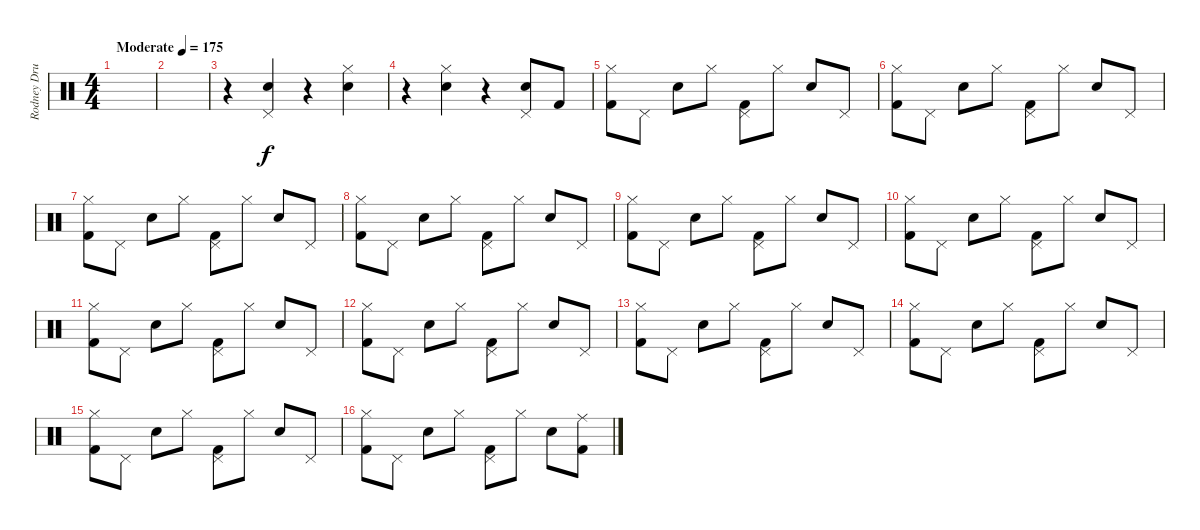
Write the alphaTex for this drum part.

\track ("Rodney Drums" "Rodney Dru") {instrument percussion}
\staff {score}
\articulation defaults
\ts (4 4)
\tempo (175 "Moderate")
\clef neutral
\ks c
|
|
r.4 ("Pedal Hi-Hat (hit)" "Snare (hit) 2").4 r.4 ("Hi-Hat (closed)" "Snare (hit) 2").4 |
r.4 ("Hi-Hat (closed)" "Snare (hit) 2").4 r.4 ("Pedal Hi-Hat (hit)" "Snare (hit) 2").8 "Kick (hit) 2".8 |
("Hi-Hat (closed)" "Kick (hit) 2").8 "Pedal Hi-Hat (hit)".8 "Snare (hit) 2".8 "Hi-Hat (closed)".8 ("Pedal Hi-Hat (hit)" "Kick (hit) 2").8 "Hi-Hat (closed)".8 "Snare (hit) 2".8 "Pedal Hi-Hat (hit)".8 |
("Hi-Hat (closed)" "Kick (hit) 2").8 "Pedal Hi-Hat (hit)".8 "Snare (hit) 2".8 "Hi-Hat (closed)".8 ("Pedal Hi-Hat (hit)" "Kick (hit) 2").8 "Hi-Hat (closed)".8 "Snare (hit) 2".8 "Pedal Hi-Hat (hit)".8 |
("Hi-Hat (closed)" "Kick (hit) 2").8 "Pedal Hi-Hat (hit)".8 "Snare (hit) 2".8 "Hi-Hat (closed)".8 ("Pedal Hi-Hat (hit)" "Kick (hit) 2").8 "Hi-Hat (closed)".8 "Snare (hit) 2".8 "Pedal Hi-Hat (hit)".8 |
("Hi-Hat (closed)" "Kick (hit) 2").8 "Pedal Hi-Hat (hit)".8 "Snare (hit) 2".8 "Hi-Hat (closed)".8 ("Pedal Hi-Hat (hit)" "Kick (hit) 2").8 "Hi-Hat (closed)".8 "Snare (hit) 2".8 "Pedal Hi-Hat (hit)".8 |
("Hi-Hat (closed)" "Kick (hit) 2").8 "Pedal Hi-Hat (hit)".8 "Snare (hit) 2".8 "Hi-Hat (closed)".8 ("Pedal Hi-Hat (hit)" "Kick (hit) 2").8 "Hi-Hat (closed)".8 "Snare (hit) 2".8 "Pedal Hi-Hat (hit)".8 |
("Hi-Hat (closed)" "Kick (hit) 2").8 "Pedal Hi-Hat (hit)".8 "Snare (hit) 2".8 "Hi-Hat (closed)".8 ("Pedal Hi-Hat (hit)" "Kick (hit) 2").8 "Hi-Hat (closed)".8 "Snare (hit) 2".8 "Pedal Hi-Hat (hit)".8 |
("Hi-Hat (closed)" "Kick (hit) 2").8 "Pedal Hi-Hat (hit)".8 "Snare (hit) 2".8 "Hi-Hat (closed)".8 ("Pedal Hi-Hat (hit)" "Kick (hit) 2").8 "Hi-Hat (closed)".8 "Snare (hit) 2".8 "Pedal Hi-Hat (hit)".8 |
("Hi-Hat (closed)" "Kick (hit) 2").8 "Pedal Hi-Hat (hit)".8 "Snare (hit) 2".8 "Hi-Hat (closed)".8 ("Pedal Hi-Hat (hit)" "Kick (hit) 2").8 "Hi-Hat (closed)".8 "Snare (hit) 2".8 "Pedal Hi-Hat (hit)".8 |
("Hi-Hat (closed)" "Kick (hit) 2").8 "Pedal Hi-Hat (hit)".8 "Snare (hit) 2".8 "Hi-Hat (closed)".8 ("Pedal Hi-Hat (hit)" "Kick (hit) 2").8 "Hi-Hat (closed)".8 "Snare (hit) 2".8 "Pedal Hi-Hat (hit)".8 |
("Hi-Hat (closed)" "Kick (hit) 2").8 "Pedal Hi-Hat (hit)".8 "Snare (hit) 2".8 "Hi-Hat (closed)".8 ("Pedal Hi-Hat (hit)" "Kick (hit) 2").8 "Hi-Hat (closed)".8 "Snare (hit) 2".8 "Pedal Hi-Hat (hit)".8 |
("Hi-Hat (closed)" "Kick (hit) 2").8 "Pedal Hi-Hat (hit)".8 "Snare (hit) 2".8 "Hi-Hat (closed)".8 ("Pedal Hi-Hat (hit)" "Kick (hit) 2").8 "Hi-Hat (closed)".8 "Snare (hit) 2".8 "Pedal Hi-Hat (hit)".8 |
("Hi-Hat (closed)" "Kick (hit) 2").8 "Pedal Hi-Hat (hit)".8 "Snare (hit) 2".8 "Hi-Hat (closed)".8 ("Pedal Hi-Hat (hit)" "Kick (hit) 2").8 "Hi-Hat (closed)".8 "Snare (hit) 2".8 ("Ride (middle)" "Kick (hit) 2").8
